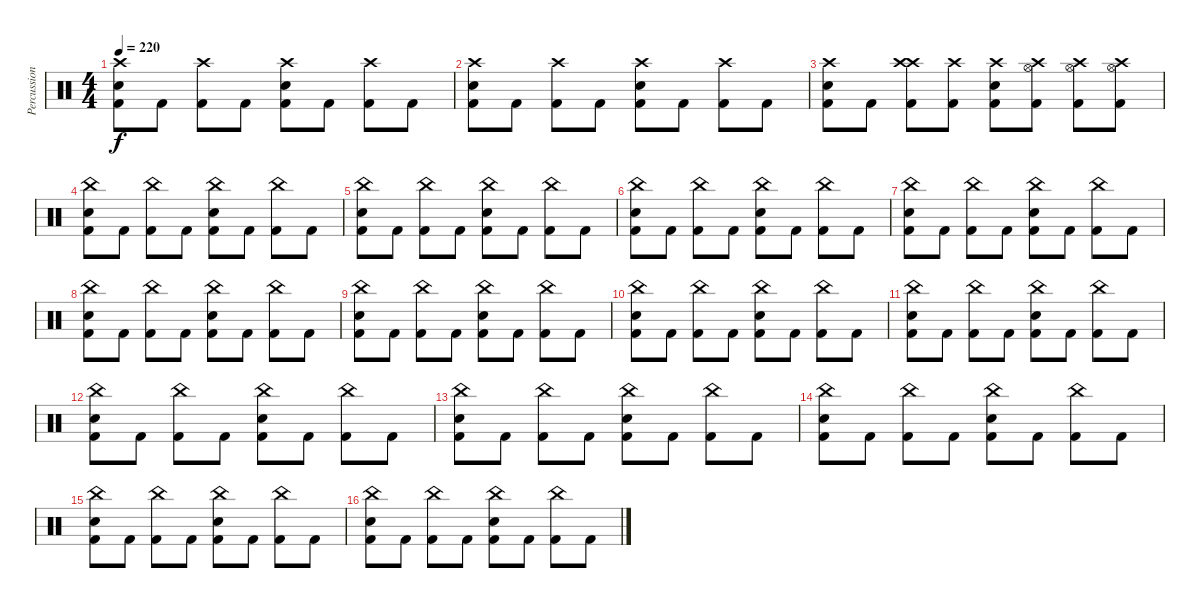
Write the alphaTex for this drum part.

\track ("Percussions" "Percussion") {instrument percussion}
\staff {score}
\articulation defaults
\ts (4 4)
\tempo 220
\clef neutral
\ks c
("Crash high (hit)" "Electric Snare (hit)" "Kick (hit) 2").8{dy f} "Kick (hit) 2".8 ("Crash high (hit)" "Kick (hit) 2").8 "Kick (hit) 2".8 ("Crash high (hit)" "Electric Snare (hit)" "Kick (hit) 2").8 "Kick (hit) 2".8 ("Crash high (hit)" "Kick (hit) 2").8 "Kick (hit) 2".8 |
("Crash high (hit)" "Electric Snare (hit)" "Kick (hit) 2").8 "Kick (hit) 2".8 ("Crash high (hit)" "Kick (hit) 2").8 "Kick (hit) 2".8 ("Crash high (hit)" "Electric Snare (hit)" "Kick (hit) 2").8 "Kick (hit) 2".8 ("Crash high (hit)" "Kick (hit) 2").8 "Kick (hit) 2".8 |
("Crash high (hit)" "Electric Snare (hit)" "Kick (hit) 2").8 "Kick (hit) 2".8 ("Crash high (hit)" "Crash high (hit)" "Kick (hit) 2").8 ("Crash high (hit)" "Kick (hit) 2").8 ("Crash high (hit)" "Electric Snare (hit)" "Kick (hit) 2").8 ("Crash high (hit)" "Hi-Hat (open)" "Kick (hit) 2").8 ("Crash high (hit)" "Hi-Hat (open)" "Kick (hit) 2").8 ("Crash high (hit)" "Hi-Hat (open)" "Kick (hit) 2").8 |
("China (hit)" "Electric Snare (hit)" "Kick (hit) 2").8 "Kick (hit) 2".8 ("China (hit)" "Kick (hit) 2").8 "Kick (hit) 2".8 ("China (hit)" "Electric Snare (hit)" "Kick (hit) 2").8 "Kick (hit) 2".8 ("China (hit)" "Kick (hit) 2").8 "Kick (hit) 2".8 |
("China (hit)" "Electric Snare (hit)" "Kick (hit) 2").8 "Kick (hit) 2".8 ("China (hit)" "Kick (hit) 2").8 "Kick (hit) 2".8 ("China (hit)" "Electric Snare (hit)" "Kick (hit) 2").8 "Kick (hit) 2".8 ("China (hit)" "Kick (hit) 2").8 "Kick (hit) 2".8 |
("China (hit)" "Electric Snare (hit)" "Kick (hit) 2").8 "Kick (hit) 2".8 ("China (hit)" "Kick (hit) 2").8 "Kick (hit) 2".8 ("China (hit)" "Electric Snare (hit)" "Kick (hit) 2").8 "Kick (hit) 2".8 ("China (hit)" "Kick (hit) 2").8 "Kick (hit) 2".8 |
("China (hit)" "Electric Snare (hit)" "Kick (hit) 2").8 "Kick (hit) 2".8 ("China (hit)" "Kick (hit) 2").8 "Kick (hit) 2".8 ("China (hit)" "Electric Snare (hit)" "Kick (hit) 2").8 "Kick (hit) 2".8 ("China (hit)" "Kick (hit) 2").8 "Kick (hit) 2".8 |
("China (hit)" "Electric Snare (hit)" "Kick (hit) 2").8 "Kick (hit) 2".8 ("China (hit)" "Kick (hit) 2").8 "Kick (hit) 2".8 ("China (hit)" "Electric Snare (hit)" "Kick (hit) 2").8 "Kick (hit) 2".8 ("China (hit)" "Kick (hit) 2").8 "Kick (hit) 2".8 |
("China (hit)" "Electric Snare (hit)" "Kick (hit) 2").8 "Kick (hit) 2".8 ("China (hit)" "Kick (hit) 2").8 "Kick (hit) 2".8 ("China (hit)" "Electric Snare (hit)" "Kick (hit) 2").8 "Kick (hit) 2".8 ("China (hit)" "Kick (hit) 2").8 "Kick (hit) 2".8 |
("China (hit)" "Electric Snare (hit)" "Kick (hit) 2").8 "Kick (hit) 2".8 ("China (hit)" "Kick (hit) 2").8 "Kick (hit) 2".8 ("China (hit)" "Electric Snare (hit)" "Kick (hit) 2").8 "Kick (hit) 2".8 ("China (hit)" "Kick (hit) 2").8 "Kick (hit) 2".8 |
("China (hit)" "Electric Snare (hit)" "Kick (hit) 2").8 "Kick (hit) 2".8 ("China (hit)" "Kick (hit) 2").8 "Kick (hit) 2".8 ("China (hit)" "Electric Snare (hit)" "Kick (hit) 2").8 "Kick (hit) 2".8 ("China (hit)" "Kick (hit) 2").8 "Kick (hit) 2".8 |
("China (hit)" "Electric Snare (hit)" "Kick (hit) 2").8 "Kick (hit) 2".8 ("China (hit)" "Kick (hit) 2").8 "Kick (hit) 2".8 ("China (hit)" "Electric Snare (hit)" "Kick (hit) 2").8 "Kick (hit) 2".8 ("China (hit)" "Kick (hit) 2").8 "Kick (hit) 2".8 |
("China (hit)" "Electric Snare (hit)" "Kick (hit) 2").8 "Kick (hit) 2".8 ("China (hit)" "Kick (hit) 2").8 "Kick (hit) 2".8 ("China (hit)" "Electric Snare (hit)" "Kick (hit) 2").8 "Kick (hit) 2".8 ("China (hit)" "Kick (hit) 2").8 "Kick (hit) 2".8 |
("China (hit)" "Electric Snare (hit)" "Kick (hit) 2").8 "Kick (hit) 2".8 ("China (hit)" "Kick (hit) 2").8 "Kick (hit) 2".8 ("China (hit)" "Electric Snare (hit)" "Kick (hit) 2").8 "Kick (hit) 2".8 ("China (hit)" "Kick (hit) 2").8 "Kick (hit) 2".8 |
("China (hit)" "Electric Snare (hit)" "Kick (hit) 2").8 "Kick (hit) 2".8 ("China (hit)" "Kick (hit) 2").8 "Kick (hit) 2".8 ("China (hit)" "Electric Snare (hit)" "Kick (hit) 2").8 "Kick (hit) 2".8 ("China (hit)" "Kick (hit) 2").8 "Kick (hit) 2".8 |
("China (hit)" "Electric Snare (hit)" "Kick (hit) 2").8 "Kick (hit) 2".8 ("China (hit)" "Kick (hit) 2").8 "Kick (hit) 2".8 ("China (hit)" "Electric Snare (hit)" "Kick (hit) 2").8 "Kick (hit) 2".8 ("China (hit)" "Kick (hit) 2").8 "Kick (hit) 2".8
